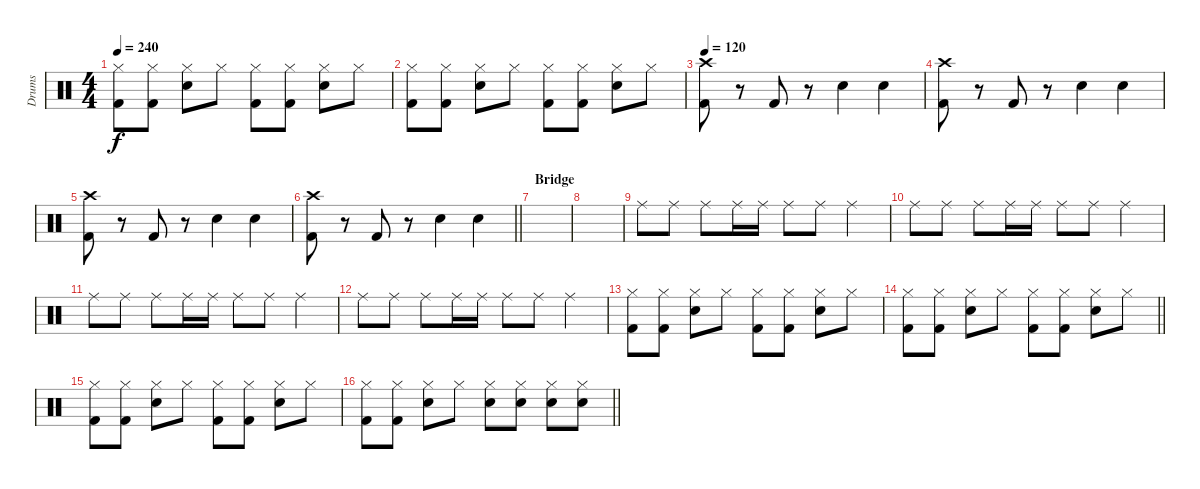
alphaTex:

\track ("Drums" "Drums") {instrument percussion}
\staff {score}
\articulation defaults
\ts (4 4)
\tempo 240
\clef neutral
\ks c
("Hi-Hat (closed)" "Kick (hit) 2").8{dy f} ("Hi-Hat (closed)" "Kick (hit) 2").8 ("Hi-Hat (closed)" "Snare (hit) 2").8 "Hi-Hat (closed)".8 ("Hi-Hat (closed)" "Kick (hit) 2").8 ("Hi-Hat (closed)" "Kick (hit) 2").8 ("Hi-Hat (closed)" "Snare (hit) 2").8 "Hi-Hat (closed)".8 |
("Hi-Hat (closed)" "Kick (hit) 2").8 ("Hi-Hat (closed)" "Kick (hit) 2").8 ("Hi-Hat (closed)" "Snare (hit) 2").8 "Hi-Hat (closed)".8 ("Hi-Hat (closed)" "Kick (hit) 2").8 ("Hi-Hat (closed)" "Kick (hit) 2").8 ("Hi-Hat (closed)" "Snare (hit) 2").8 "Hi-Hat (closed)".8 |
\tempo 120
("Crash high (hit)" "Kick (hit) 2").8 r.8 "Kick (hit) 2".8 r.8 "Snare (hit) 2".4 "Snare (hit) 2".4 |
("Crash high (hit)" "Kick (hit) 2").8 r.8 "Kick (hit) 2".8 r.8 "Snare (hit) 2".4 "Snare (hit) 2".4 |
("Crash high (hit)" "Kick (hit) 2").8 r.8 "Kick (hit) 2".8 r.8 "Snare (hit) 2".4 "Snare (hit) 2".4 |
\barLineRight lightlight
("Crash high (hit)" "Kick (hit) 2").8 r.8 "Kick (hit) 2".8 r.8 "Snare (hit) 2".4 "Snare (hit) 2".4 |
\section ("" "Bridge")
|
|
"Ride (middle)".8 "Ride (middle)".8 "Ride (middle)".8 "Ride (middle)".16 "Ride (middle)".16 "Ride (middle)".8 "Ride (middle)".8 "Ride (middle)".4 |
"Ride (middle)".8 "Ride (middle)".8 "Ride (middle)".8 "Ride (middle)".16 "Ride (middle)".16 "Ride (middle)".8 "Ride (middle)".8 "Ride (middle)".4 |
"Ride (middle)".8 "Ride (middle)".8 "Ride (middle)".8 "Ride (middle)".16 "Ride (middle)".16 "Ride (middle)".8 "Ride (middle)".8 "Ride (middle)".4 |
"Ride (middle)".8 "Ride (middle)".8 "Ride (middle)".8 "Ride (middle)".16 "Ride (middle)".16 "Ride (middle)".8 "Ride (middle)".8 "Ride (middle)".4 |
("Hi-Hat (closed)" "Kick (hit) 2").8 ("Hi-Hat (closed)" "Kick (hit) 2").8 ("Hi-Hat (closed)" "Snare (hit) 2").8 "Hi-Hat (closed)".8 ("Hi-Hat (closed)" "Kick (hit) 2").8 ("Hi-Hat (closed)" "Kick (hit) 2").8 ("Hi-Hat (closed)" "Snare (hit) 2").8 "Hi-Hat (closed)".8 |
\barLineRight lightlight
("Hi-Hat (closed)" "Kick (hit) 2").8 ("Hi-Hat (closed)" "Kick (hit) 2").8 ("Hi-Hat (closed)" "Snare (hit) 2").8 "Hi-Hat (closed)".8 ("Hi-Hat (closed)" "Kick (hit) 2").8 ("Hi-Hat (closed)" "Kick (hit) 2").8 ("Hi-Hat (closed)" "Snare (hit) 2").8 "Hi-Hat (closed)".8 |
("Hi-Hat (closed)" "Kick (hit) 2").8 ("Hi-Hat (closed)" "Kick (hit) 2").8 ("Hi-Hat (closed)" "Snare (hit) 2").8 "Hi-Hat (closed)".8 ("Hi-Hat (closed)" "Kick (hit) 2").8 ("Hi-Hat (closed)" "Kick (hit) 2").8 ("Hi-Hat (closed)" "Snare (hit) 2").8 "Hi-Hat (closed)".8 |
\barLineRight lightlight
("Hi-Hat (closed)" "Kick (hit) 2").8 ("Hi-Hat (closed)" "Kick (hit) 2").8 ("Hi-Hat (closed)" "Snare (hit) 2").8 "Hi-Hat (closed)".8 ("Hi-Hat (closed)" "Snare (hit) 2").8 ("Hi-Hat (closed)" "Snare (hit) 2").8 ("Hi-Hat (closed)" "Snare (hit) 2").8 ("Hi-Hat (closed)" "Snare (hit) 2").8
